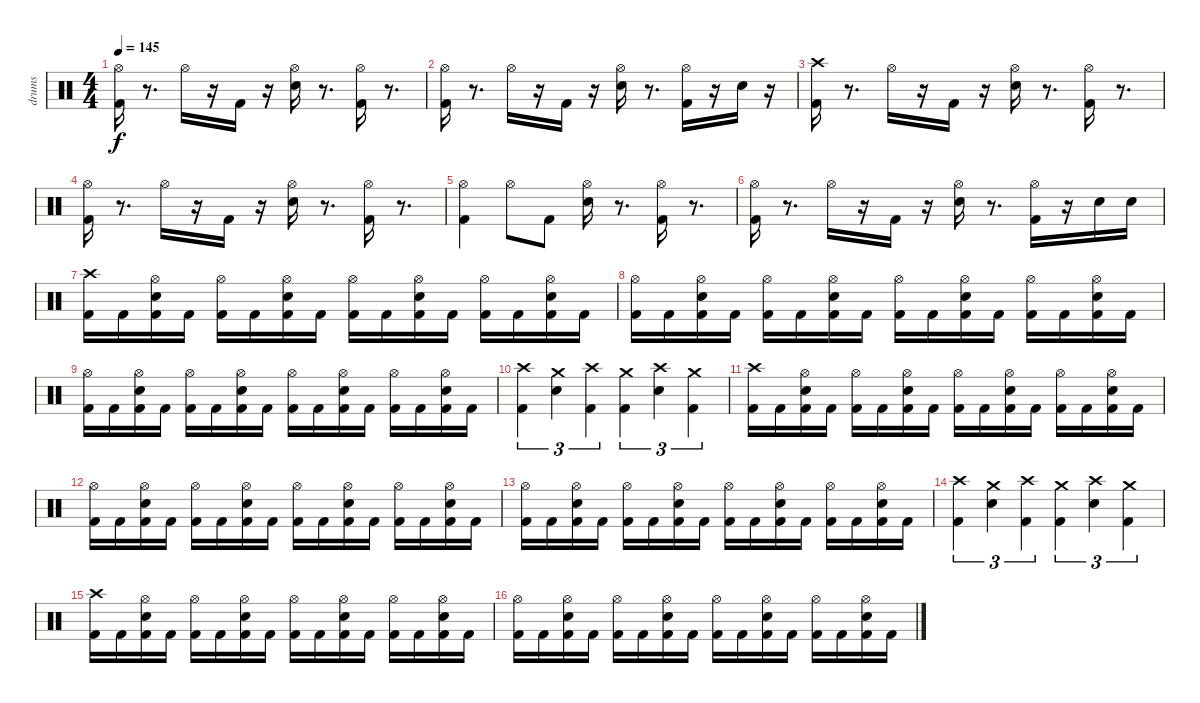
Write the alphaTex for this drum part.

\track ("drums" "drums") {instrument percussion}
\staff {score}
\articulation defaults
\ts (4 4)
\tempo 145
\clef neutral
\ks c
("Hi-Hat (open)" "Kick (hit) 2").16{dy f} r.8{d} "Hi-Hat (open)".16 r.16 "Kick (hit) 2".16 r.16 ("Hi-Hat (open)" "Snare (hit) 2").16 r.8{d} ("Hi-Hat (open)" "Kick (hit) 2").16 r.8{d} |
("Hi-Hat (open)" "Kick (hit) 2").16 r.8{d} "Hi-Hat (open)".16 r.16 "Kick (hit) 2".16 r.16 ("Hi-Hat (open)" "Snare (hit) 2").16 r.8{d} ("Hi-Hat (open)" "Kick (hit) 2").16 r.16 "Snare (hit) 2".16 r.16 |
("Crash high (hit)" "Kick (hit) 2").16 r.8{d} "Hi-Hat (open)".16 r.16 "Kick (hit) 2".16 r.16 ("Hi-Hat (open)" "Snare (hit) 2").16 r.8{d} ("Hi-Hat (open)" "Kick (hit) 2").16 r.8{d} |
("Hi-Hat (open)" "Kick (hit) 2").16 r.8{d} "Hi-Hat (open)".16 r.16 "Kick (hit) 2".16 r.16 ("Hi-Hat (open)" "Snare (hit) 2").16 r.8{d} ("Hi-Hat (open)" "Kick (hit) 2").16 r.8{d} |
("Hi-Hat (open)" "Kick (hit) 2").4 "Hi-Hat (open)".8 "Kick (hit) 2".8 ("Hi-Hat (open)" "Snare (hit) 2").16 r.8{d} ("Hi-Hat (open)" "Kick (hit) 2").16 r.8{d} |
("Hi-Hat (open)" "Kick (hit) 2").16 r.8{d} "Hi-Hat (open)".16 r.16 "Kick (hit) 2".16 r.16 ("Hi-Hat (open)" "Snare (hit) 2").16 r.8{d} ("Hi-Hat (open)" "Kick (hit) 2").16 r.16 "Snare (hit) 2".16 "Snare (hit) 2".16 |
("Crash high (hit)" "Kick (hit) 2").16 "Kick (hit) 2".16 ("Hi-Hat (open)" "Kick (hit) 2" "Snare (hit) 2").16 "Kick (hit) 2".16 ("Hi-Hat (open)" "Kick (hit) 2").16 "Kick (hit) 2".16 ("Hi-Hat (open)" "Kick (hit) 2" "Snare (hit) 2").16 "Kick (hit) 2".16 ("Hi-Hat (open)" "Kick (hit) 2").16 "Kick (hit) 2".16 ("Hi-Hat (open)" "Kick (hit) 2" "Snare (hit) 2").16 "Kick (hit) 2".16 ("Hi-Hat (open)" "Kick (hit) 2").16 "Kick (hit) 2".16 ("Hi-Hat (open)" "Kick (hit) 2" "Snare (hit) 2").16 "Kick (hit) 2".16 |
("Hi-Hat (open)" "Kick (hit) 2").16 "Kick (hit) 2".16 ("Hi-Hat (open)" "Kick (hit) 2" "Snare (hit) 2").16 "Kick (hit) 2".16 ("Hi-Hat (open)" "Kick (hit) 2").16 "Kick (hit) 2".16 ("Hi-Hat (open)" "Kick (hit) 2" "Snare (hit) 2").16 "Kick (hit) 2".16 ("Hi-Hat (open)" "Kick (hit) 2").16 "Kick (hit) 2".16 ("Hi-Hat (open)" "Kick (hit) 2" "Snare (hit) 2").16 "Kick (hit) 2".16 ("Hi-Hat (open)" "Kick (hit) 2").16 "Kick (hit) 2".16 ("Hi-Hat (open)" "Kick (hit) 2" "Snare (hit) 2").16 "Kick (hit) 2".16 |
("Hi-Hat (open)" "Kick (hit) 2").16 "Kick (hit) 2".16 ("Hi-Hat (open)" "Kick (hit) 2" "Snare (hit) 2").16 "Kick (hit) 2".16 ("Hi-Hat (open)" "Kick (hit) 2").16 "Kick (hit) 2".16 ("Hi-Hat (open)" "Kick (hit) 2" "Snare (hit) 2").16 "Kick (hit) 2".16 ("Hi-Hat (open)" "Kick (hit) 2").16 "Kick (hit) 2".16 ("Hi-Hat (open)" "Kick (hit) 2" "Snare (hit) 2").16 "Kick (hit) 2".16 ("Hi-Hat (open)" "Kick (hit) 2").16 "Kick (hit) 2".16 ("Hi-Hat (open)" "Kick (hit) 2" "Snare (hit) 2").16 "Kick (hit) 2".16 |
("Crash high (hit)" "Kick (hit) 2").4{tu (3 2)} ("Crash medium (hit)" "Snare (hit) 2").4{tu (3 2)} ("Crash high (hit)" "Kick (hit) 2").4{tu (3 2)} ("Crash medium (hit)" "Kick (hit) 2").4{tu (3 2)} ("Snare (hit) 2" "Crash high (hit)").4{tu (3 2)} ("Crash medium (hit)" "Kick (hit) 2").4{tu (3 2)} |
("Crash high (hit)" "Kick (hit) 2").16 "Kick (hit) 2".16 ("Hi-Hat (open)" "Kick (hit) 2" "Snare (hit) 2").16 "Kick (hit) 2".16 ("Hi-Hat (open)" "Kick (hit) 2").16 "Kick (hit) 2".16 ("Hi-Hat (open)" "Kick (hit) 2" "Snare (hit) 2").16 "Kick (hit) 2".16 ("Hi-Hat (open)" "Kick (hit) 2").16 "Kick (hit) 2".16 ("Hi-Hat (open)" "Kick (hit) 2" "Snare (hit) 2").16 "Kick (hit) 2".16 ("Hi-Hat (open)" "Kick (hit) 2").16 "Kick (hit) 2".16 ("Hi-Hat (open)" "Kick (hit) 2" "Snare (hit) 2").16 "Kick (hit) 2".16 |
("Hi-Hat (open)" "Kick (hit) 2").16 "Kick (hit) 2".16 ("Hi-Hat (open)" "Kick (hit) 2" "Snare (hit) 2").16 "Kick (hit) 2".16 ("Hi-Hat (open)" "Kick (hit) 2").16 "Kick (hit) 2".16 ("Hi-Hat (open)" "Kick (hit) 2" "Snare (hit) 2").16 "Kick (hit) 2".16 ("Hi-Hat (open)" "Kick (hit) 2").16 "Kick (hit) 2".16 ("Hi-Hat (open)" "Kick (hit) 2" "Snare (hit) 2").16 "Kick (hit) 2".16 ("Hi-Hat (open)" "Kick (hit) 2").16 "Kick (hit) 2".16 ("Hi-Hat (open)" "Kick (hit) 2" "Snare (hit) 2").16 "Kick (hit) 2".16 |
("Hi-Hat (open)" "Kick (hit) 2").16 "Kick (hit) 2".16 ("Hi-Hat (open)" "Kick (hit) 2" "Snare (hit) 2").16 "Kick (hit) 2".16 ("Hi-Hat (open)" "Kick (hit) 2").16 "Kick (hit) 2".16 ("Hi-Hat (open)" "Kick (hit) 2" "Snare (hit) 2").16 "Kick (hit) 2".16 ("Hi-Hat (open)" "Kick (hit) 2").16 "Kick (hit) 2".16 ("Hi-Hat (open)" "Kick (hit) 2" "Snare (hit) 2").16 "Kick (hit) 2".16 ("Hi-Hat (open)" "Kick (hit) 2").16 "Kick (hit) 2".16 ("Hi-Hat (open)" "Kick (hit) 2" "Snare (hit) 2").16 "Kick (hit) 2".16 |
("Crash high (hit)" "Kick (hit) 2").4{tu (3 2)} ("Crash medium (hit)" "Snare (hit) 2").4{tu (3 2)} ("Crash high (hit)" "Kick (hit) 2").4{tu (3 2)} ("Crash medium (hit)" "Kick (hit) 2").4{tu (3 2)} ("Snare (hit) 2" "Crash high (hit)").4{tu (3 2)} ("Crash medium (hit)" "Kick (hit) 2").4{tu (3 2)} |
("Crash high (hit)" "Kick (hit) 2").16 "Kick (hit) 2".16 ("Hi-Hat (open)" "Kick (hit) 2" "Snare (hit) 2").16 "Kick (hit) 2".16 ("Hi-Hat (open)" "Kick (hit) 2").16 "Kick (hit) 2".16 ("Hi-Hat (open)" "Kick (hit) 2" "Snare (hit) 2").16 "Kick (hit) 2".16 ("Hi-Hat (open)" "Kick (hit) 2").16 "Kick (hit) 2".16 ("Hi-Hat (open)" "Kick (hit) 2" "Snare (hit) 2").16 "Kick (hit) 2".16 ("Hi-Hat (open)" "Kick (hit) 2").16 "Kick (hit) 2".16 ("Hi-Hat (open)" "Kick (hit) 2" "Snare (hit) 2").16 "Kick (hit) 2".16 |
("Hi-Hat (open)" "Kick (hit) 2").16 "Kick (hit) 2".16 ("Hi-Hat (open)" "Kick (hit) 2" "Snare (hit) 2").16 "Kick (hit) 2".16 ("Hi-Hat (open)" "Kick (hit) 2").16 "Kick (hit) 2".16 ("Hi-Hat (open)" "Kick (hit) 2" "Snare (hit) 2").16 "Kick (hit) 2".16 ("Hi-Hat (open)" "Kick (hit) 2").16 "Kick (hit) 2".16 ("Hi-Hat (open)" "Kick (hit) 2" "Snare (hit) 2").16 "Kick (hit) 2".16 ("Hi-Hat (open)" "Kick (hit) 2").16 "Kick (hit) 2".16 ("Hi-Hat (open)" "Kick (hit) 2" "Snare (hit) 2").16 "Kick (hit) 2".16
